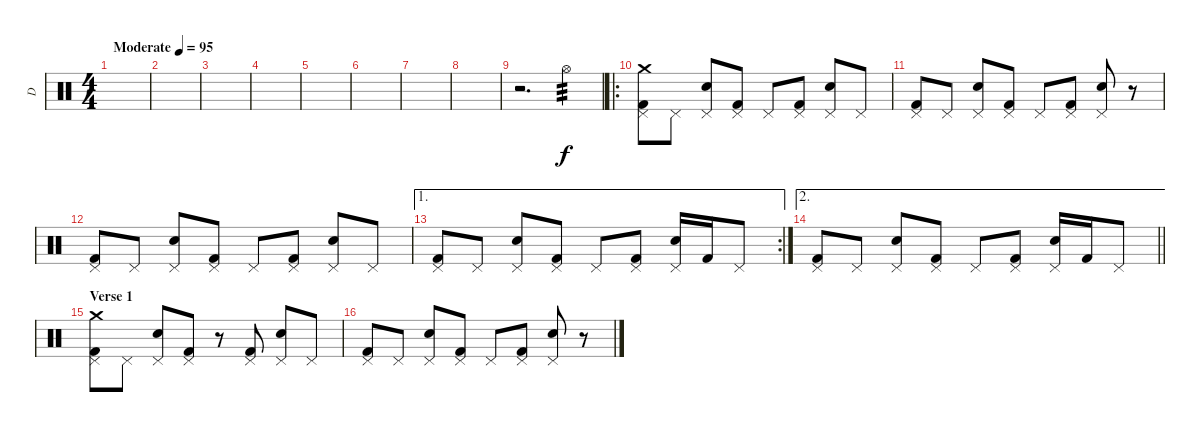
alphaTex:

\track ("D" "D") {instrument percussion}
\staff {score}
\articulation defaults
\ts (4 4)
\tempo (95 "Moderate")
\clef neutral
\ks c
|
|
|
|
|
|
|
|
r.2{d} "Hi-Hat (open)".4{tp 3 volume 13} |
\ro
("Crash medium (hit)" "Kick (hit) 2" "Pedal Hi-Hat (hit)").8 "Pedal Hi-Hat (hit)".8 ("Electric Snare (hit)" "Pedal Hi-Hat (hit)").8 ("Kick (hit) 2" "Pedal Hi-Hat (hit)").8 "Pedal Hi-Hat (hit)".8 ("Kick (hit) 2" "Pedal Hi-Hat (hit)").8 ("Electric Snare (hit)" "Pedal Hi-Hat (hit)").8 "Pedal Hi-Hat (hit)".8 |
("Kick (hit) 2" "Pedal Hi-Hat (hit)").8 "Pedal Hi-Hat (hit)".8 ("Electric Snare (hit)" "Pedal Hi-Hat (hit)").8 ("Kick (hit) 2" "Pedal Hi-Hat (hit)").8 "Pedal Hi-Hat (hit)".8 ("Kick (hit) 2" "Pedal Hi-Hat (hit)").8 ("Electric Snare (hit)" "Pedal Hi-Hat (hit)").8 r.8 |
("Kick (hit) 2" "Pedal Hi-Hat (hit)").8 "Pedal Hi-Hat (hit)".8 ("Electric Snare (hit)" "Pedal Hi-Hat (hit)").8 ("Kick (hit) 2" "Pedal Hi-Hat (hit)").8 "Pedal Hi-Hat (hit)".8 ("Kick (hit) 2" "Pedal Hi-Hat (hit)").8 ("Electric Snare (hit)" "Pedal Hi-Hat (hit)").8 "Pedal Hi-Hat (hit)".8 |
\ae 1
\rc 2
("Kick (hit) 2" "Pedal Hi-Hat (hit)").8 "Pedal Hi-Hat (hit)".8 ("Electric Snare (hit)" "Pedal Hi-Hat (hit)").8 ("Kick (hit) 2" "Pedal Hi-Hat (hit)").8 "Pedal Hi-Hat (hit)".8 ("Kick (hit) 2" "Pedal Hi-Hat (hit)").8 ("Electric Snare (hit)" "Pedal Hi-Hat (hit)").16 "Kick (hit) 2".16 "Pedal Hi-Hat (hit)".8 |
\ae 2
\barLineRight lightlight
("Kick (hit) 2" "Pedal Hi-Hat (hit)").8 "Pedal Hi-Hat (hit)".8 ("Electric Snare (hit)" "Pedal Hi-Hat (hit)").8 ("Kick (hit) 2" "Pedal Hi-Hat (hit)").8 "Pedal Hi-Hat (hit)".8 ("Kick (hit) 2" "Pedal Hi-Hat (hit)").8 ("Electric Snare (hit)" "Pedal Hi-Hat (hit)").16 "Kick (hit) 2".16 "Pedal Hi-Hat (hit)".8 |
\section ("" "Verse 1")
("Crash medium (hit)" "Kick (hit) 2" "Pedal Hi-Hat (hit)").8 "Pedal Hi-Hat (hit)".8 ("Electric Snare (hit)" "Pedal Hi-Hat (hit)").8 ("Kick (hit) 2" "Pedal Hi-Hat (hit)").8 r.8 ("Kick (hit) 2" "Pedal Hi-Hat (hit)").8 ("Electric Snare (hit)" "Pedal Hi-Hat (hit)").8 "Pedal Hi-Hat (hit)".8 |
("Kick (hit) 2" "Pedal Hi-Hat (hit)").8 "Pedal Hi-Hat (hit)".8 ("Electric Snare (hit)" "Pedal Hi-Hat (hit)").8 ("Kick (hit) 2" "Pedal Hi-Hat (hit)").8 "Pedal Hi-Hat (hit)".8 ("Kick (hit) 2" "Pedal Hi-Hat (hit)").8 ("Electric Snare (hit)" "Pedal Hi-Hat (hit)").8 r.8
